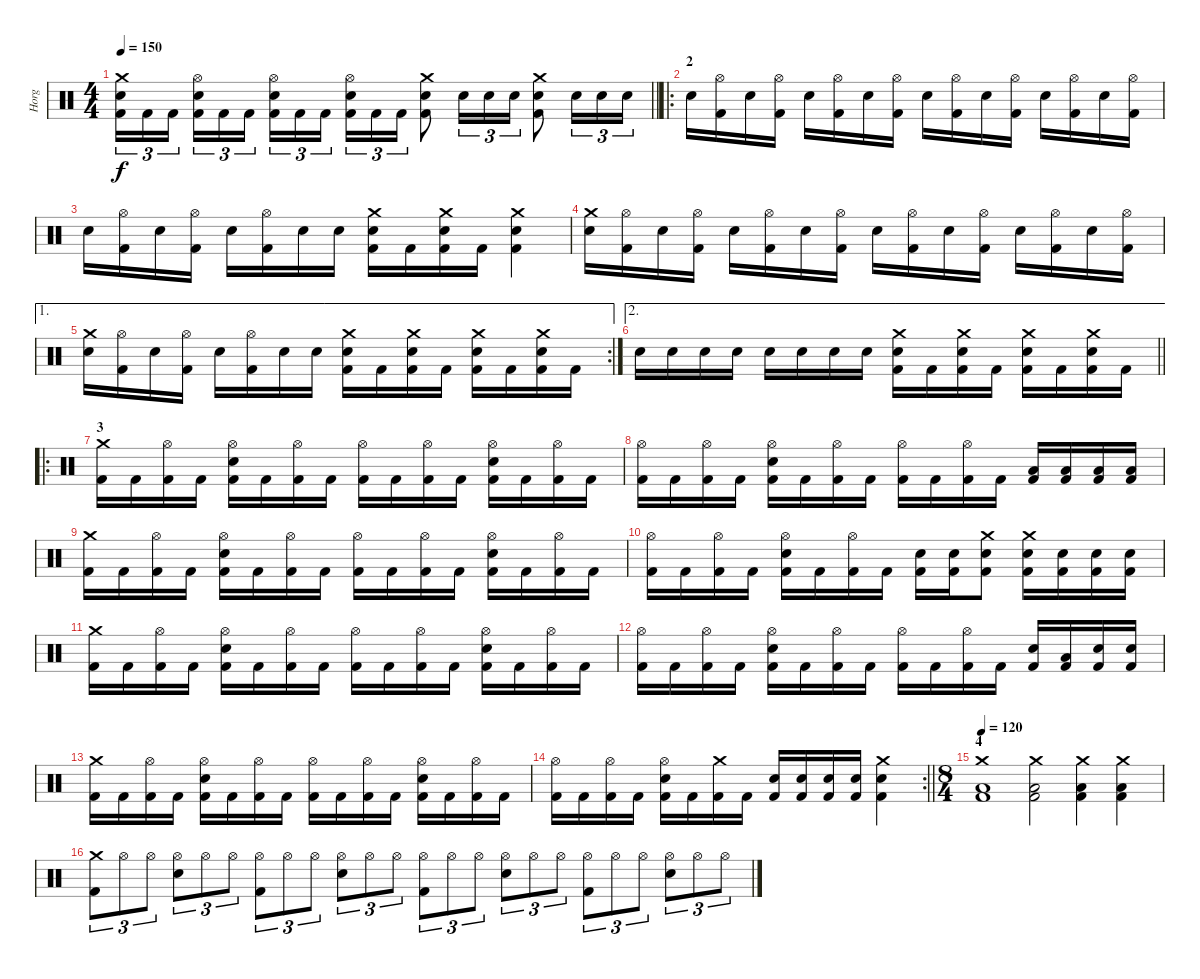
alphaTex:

\track ("Horg" "Horg") {instrument percussion}
\staff {score}
\articulation defaults
\ts (4 4)
\tempo 150
\clef neutral
\barLineRight lightlight
\ks c
("Crash medium (hit)" "Snare (hit) 2" "Kick (hit) 2").16{tu (3 2) dy f} "Kick (hit) 2".16{tu (3 2)} "Kick (hit) 2".16{tu (3 2) beam splitsecondary} ("Hi-Hat (open)" "Snare (hit) 2" "Kick (hit) 2").16{tu (3 2)} "Kick (hit) 2".16{tu (3 2)} "Kick (hit) 2".16{tu (3 2)} ("Hi-Hat (open)" "Snare (hit) 2" "Kick (hit) 2").16{tu (3 2)} "Kick (hit) 2".16{tu (3 2)} "Kick (hit) 2".16{tu (3 2) beam splitsecondary} ("Hi-Hat (open)" "Snare (hit) 2" "Kick (hit) 2").16{tu (3 2)} "Kick (hit) 2".16{tu (3 2)} "Kick (hit) 2".16{tu (3 2)} ("Crash medium (hit)" "Snare (hit) 2" "Kick (hit) 2").8 "Snare (hit) 2".16{tu (3 2)} "Snare (hit) 2".16{tu (3 2)} "Snare (hit) 2".16{tu (3 2)} ("Crash medium (hit)" "Snare (hit) 2" "Kick (hit) 2").8 "Snare (hit) 2".16{tu (3 2)} "Snare (hit) 2".16{tu (3 2)} "Snare (hit) 2".16{tu (3 2)} |
\ro
\section ("" "2")
"Snare (hit) 2".16 ("Hi-Hat (open)" "Kick (hit) 2").16 "Snare (hit) 2".16 ("Hi-Hat (open)" "Kick (hit) 2").16 "Snare (hit) 2".16 ("Hi-Hat (open)" "Kick (hit) 2").16 "Snare (hit) 2".16 ("Hi-Hat (open)" "Kick (hit) 2").16 "Snare (hit) 2".16 ("Hi-Hat (open)" "Kick (hit) 2").16 "Snare (hit) 2".16 ("Hi-Hat (open)" "Kick (hit) 2").16 "Snare (hit) 2".16 ("Hi-Hat (open)" "Kick (hit) 2").16 "Snare (hit) 2".16 ("Hi-Hat (open)" "Kick (hit) 2").16 |
"Snare (hit) 2".16 ("Hi-Hat (open)" "Kick (hit) 2").16 "Snare (hit) 2".16 ("Hi-Hat (open)" "Kick (hit) 2").16 "Snare (hit) 2".16 ("Hi-Hat (open)" "Kick (hit) 2").16 "Snare (hit) 2".16 "Snare (hit) 2".16 ("Crash medium (hit)" "Snare (hit) 2" "Kick (hit) 2").16 "Kick (hit) 2".16 ("Crash medium (hit)" "Snare (hit) 2" "Kick (hit) 2").16 "Kick (hit) 2".16 ("Crash medium (hit)" "Snare (hit) 2" "Kick (hit) 2").4 |
("Crash medium (hit)" "Snare (hit) 2").16 ("Hi-Hat (open)" "Kick (hit) 2").16 "Snare (hit) 2".16 ("Hi-Hat (open)" "Kick (hit) 2").16 "Snare (hit) 2".16 ("Hi-Hat (open)" "Kick (hit) 2").16 "Snare (hit) 2".16 ("Hi-Hat (open)" "Kick (hit) 2").16 "Snare (hit) 2".16 ("Hi-Hat (open)" "Kick (hit) 2").16 "Snare (hit) 2".16 ("Hi-Hat (open)" "Kick (hit) 2").16 "Snare (hit) 2".16 ("Hi-Hat (open)" "Kick (hit) 2").16 "Snare (hit) 2".16 ("Hi-Hat (open)" "Kick (hit) 2").16 |
\ae 1
\rc 2
("Crash medium (hit)" "Snare (hit) 2").16 ("Hi-Hat (open)" "Kick (hit) 2").16 "Snare (hit) 2".16 ("Hi-Hat (open)" "Kick (hit) 2").16 "Snare (hit) 2".16 ("Hi-Hat (open)" "Kick (hit) 2").16 "Snare (hit) 2".16 "Snare (hit) 2".16 ("Crash medium (hit)" "Snare (hit) 2" "Kick (hit) 2").16 "Kick (hit) 2".16 ("Crash medium (hit)" "Snare (hit) 2" "Kick (hit) 2").16 "Kick (hit) 2".16 ("Crash medium (hit)" "Snare (hit) 2" "Kick (hit) 2").16 "Kick (hit) 2".16 ("Crash medium (hit)" "Snare (hit) 2" "Kick (hit) 2").16 "Kick (hit) 2".16 |
\ae 2
\barLineRight lightlight "Snare (hit) 2".16 "Snare (hit) 2".16 "Snare (hit) 2".16 "Snare (hit) 2".16 "Snare (hit) 2".16 "Snare (hit) 2".16 "Snare (hit) 2".16 "Snare (hit) 2".16
("Crash medium (hit)" "Snare (hit) 2" "Kick (hit) 2").16 "Kick (hit) 2".16 ("Crash medium (hit)" "Snare (hit) 2" "Kick (hit) 2").16 "Kick (hit) 2".16 ("Crash medium (hit)" "Snare (hit) 2" "Kick (hit) 2").16 "Kick (hit) 2".16 ("Crash medium (hit)" "Snare (hit) 2" "Kick (hit) 2").16 "Kick (hit) 2".16 |
\ro
\section ("" "3")
("Crash medium (hit)" "Kick (hit) 2").16 "Kick (hit) 2".16 ("Hi-Hat (open)" "Kick (hit) 2").16 "Kick (hit) 2".16 ("Hi-Hat (open)" "Snare (hit) 2" "Kick (hit) 2").16 "Kick (hit) 2".16 ("Hi-Hat (open)" "Kick (hit) 2").16 "Kick (hit) 2".16 ("Hi-Hat (open)" "Kick (hit) 2").16 "Kick (hit) 2".16 ("Hi-Hat (open)" "Kick (hit) 2").16 "Kick (hit) 2".16 ("Hi-Hat (open)" "Snare (hit) 2" "Kick (hit) 2").16 "Kick (hit) 2".16 ("Hi-Hat (open)" "Kick (hit) 2").16 "Kick (hit) 2".16 |
("Hi-Hat (open)" "Kick (hit) 2").16 "Kick (hit) 2".16 ("Hi-Hat (open)" "Kick (hit) 2").16 "Kick (hit) 2".16 ("Hi-Hat (open)" "Snare (hit) 2" "Kick (hit) 2").16 "Kick (hit) 2".16 ("Hi-Hat (open)" "Kick (hit) 2").16 "Kick (hit) 2".16 ("Hi-Hat (open)" "Kick (hit) 2").16 "Kick (hit) 2".16 ("Hi-Hat (open)" "Kick (hit) 2").16 "Kick (hit) 2".16 ("Low Floor Tom (hit)" "Kick (hit) 2").16 ("Low Floor Tom (hit)" "Kick (hit) 2").16 ("Low Floor Tom (hit)" "Kick (hit) 2").16 ("Low Floor Tom (hit)" "Kick (hit) 2").16 |
("Crash medium (hit)" "Kick (hit) 2").16 "Kick (hit) 2".16 ("Hi-Hat (open)" "Kick (hit) 2").16 "Kick (hit) 2".16 ("Hi-Hat (open)" "Snare (hit) 2" "Kick (hit) 2").16 "Kick (hit) 2".16 ("Hi-Hat (open)" "Kick (hit) 2").16 "Kick (hit) 2".16 ("Hi-Hat (open)" "Kick (hit) 2").16 "Kick (hit) 2".16 ("Hi-Hat (open)" "Kick (hit) 2").16 "Kick (hit) 2".16 ("Hi-Hat (open)" "Snare (hit) 2" "Kick (hit) 2").16 "Kick (hit) 2".16 ("Hi-Hat (open)" "Kick (hit) 2").16 "Kick (hit) 2".16 |
("Hi-Hat (open)" "Kick (hit) 2").16 "Kick (hit) 2".16 ("Hi-Hat (open)" "Kick (hit) 2").16 "Kick (hit) 2".16 ("Hi-Hat (open)" "Snare (hit) 2" "Kick (hit) 2").16 "Kick (hit) 2".16 ("Hi-Hat (open)" "Kick (hit) 2").16 "Kick (hit) 2".16 ("Snare (hit) 2" "Kick (hit) 2").16 ("Snare (hit) 2" "Kick (hit) 2").16 ("Crash medium (hit)" "Snare (hit) 2" "Kick (hit) 2").8 ("Crash medium (hit)" "Snare (hit) 2" "Kick (hit) 2").16 ("Snare (hit) 2" "Kick (hit) 2").16 ("Snare (hit) 2" "Kick (hit) 2").16 ("Snare (hit) 2" "Kick (hit) 2").16 |
("Crash medium (hit)" "Kick (hit) 2").16 "Kick (hit) 2".16 ("Hi-Hat (open)" "Kick (hit) 2").16 "Kick (hit) 2".16 ("Hi-Hat (open)" "Snare (hit) 2" "Kick (hit) 2").16 "Kick (hit) 2".16 ("Hi-Hat (open)" "Kick (hit) 2").16 "Kick (hit) 2".16 ("Hi-Hat (open)" "Kick (hit) 2").16 "Kick (hit) 2".16 ("Hi-Hat (open)" "Kick (hit) 2").16 "Kick (hit) 2".16 ("Hi-Hat (open)" "Snare (hit) 2" "Kick (hit) 2").16 "Kick (hit) 2".16 ("Hi-Hat (open)" "Kick (hit) 2").16 "Kick (hit) 2".16 |
("Hi-Hat (open)" "Kick (hit) 2").16 "Kick (hit) 2".16 ("Hi-Hat (open)" "Kick (hit) 2").16 "Kick (hit) 2".16 ("Hi-Hat (open)" "Snare (hit) 2" "Kick (hit) 2").16 "Kick (hit) 2".16 ("Hi-Hat (open)" "Kick (hit) 2").16 "Kick (hit) 2".16 ("Hi-Hat (open)" "Kick (hit) 2").16 "Kick (hit) 2".16 ("Hi-Hat (open)" "Kick (hit) 2").16 "Kick (hit) 2".16 ("Snare (hit) 2" "Kick (hit) 2").16 ("Low Floor Tom (hit)" "Kick (hit) 2").16 ("Snare (hit) 2" "Kick (hit) 2").16 ("Snare (hit) 2" "Kick (hit) 2").16 |
("Crash medium (hit)" "Kick (hit) 2").16 "Kick (hit) 2".16 ("Hi-Hat (open)" "Kick (hit) 2").16 "Kick (hit) 2".16 ("Hi-Hat (open)" "Snare (hit) 2" "Kick (hit) 2").16 "Kick (hit) 2".16 ("Hi-Hat (open)" "Kick (hit) 2").16 "Kick (hit) 2".16 ("Hi-Hat (open)" "Kick (hit) 2").16 "Kick (hit) 2".16 ("Hi-Hat (open)" "Kick (hit) 2").16 "Kick (hit) 2".16 ("Hi-Hat (open)" "Snare (hit) 2" "Kick (hit) 2").16 "Kick (hit) 2".16 ("Hi-Hat (open)" "Kick (hit) 2").16 "Kick (hit) 2".16 |
\rc 2
\barLineRight lightlight
("Hi-Hat (open)" "Kick (hit) 2").16 "Kick (hit) 2".16 ("Hi-Hat (open)" "Kick (hit) 2").16 "Kick (hit) 2".16 ("Hi-Hat (open)" "Snare (hit) 2" "Kick (hit) 2").16 "Kick (hit) 2".16 ("Crash medium (hit)" "Kick (hit) 2").16 "Kick (hit) 2".16 ("Snare (hit) 2" "Kick (hit) 2").16 ("Snare (hit) 2" "Kick (hit) 2").16 ("Snare (hit) 2" "Kick (hit) 2").16 ("Snare (hit) 2" "Kick (hit) 2").16 ("Crash medium (hit)" "Snare (hit) 2" "Kick (hit) 2").4 |
\ts (8 4)
\section ("" "4")
\tempo 120
("Crash medium (hit)" "Low Floor Tom (hit)" "Kick (hit) 2").1 ("Crash medium (hit)" "Low Floor Tom (hit)" "Kick (hit) 2").2 ("Crash medium (hit)" "Low Floor Tom (hit)" "Kick (hit) 2").4 ("Crash medium (hit)" "Low Floor Tom (hit)" "Kick (hit) 2").4 |
("Crash medium (hit)" "Kick (hit) 2").8{tu (3 2)} "Hi-Hat (open)".8{tu (3 2)} "Hi-Hat (open)".8{tu (3 2)} ("Hi-Hat (open)" "Snare (hit) 2").8{tu (3 2)} "Hi-Hat (open)".8{tu (3 2)} "Hi-Hat (open)".8{tu (3 2)} ("Hi-Hat (open)" "Kick (hit) 2").8{tu (3 2)} "Hi-Hat (open)".8{tu (3 2)} "Hi-Hat (open)".8{tu (3 2)} ("Hi-Hat (open)" "Snare (hit) 2").8{tu (3 2)} "Hi-Hat (open)".8{tu (3 2)} "Hi-Hat (open)".8{tu (3 2)} ("Hi-Hat (open)" "Kick (hit) 2").8{tu (3 2)} "Hi-Hat (open)".8{tu (3 2)} "Hi-Hat (open)".8{tu (3 2)} ("Hi-Hat (open)" "Snare (hit) 2").8{tu (3 2)} "Hi-Hat (open)".8{tu (3 2)} "Hi-Hat (open)".8{tu (3 2)} ("Hi-Hat (open)" "Kick (hit) 2").8{tu (3 2)} "Hi-Hat (open)".8{tu (3 2)} "Hi-Hat (open)".8{tu (3 2)} ("Hi-Hat (open)" "Snare (hit) 2").8{tu (3 2)} "Hi-Hat (open)".8{tu (3 2)} "Hi-Hat (open)".8{tu (3 2)}
